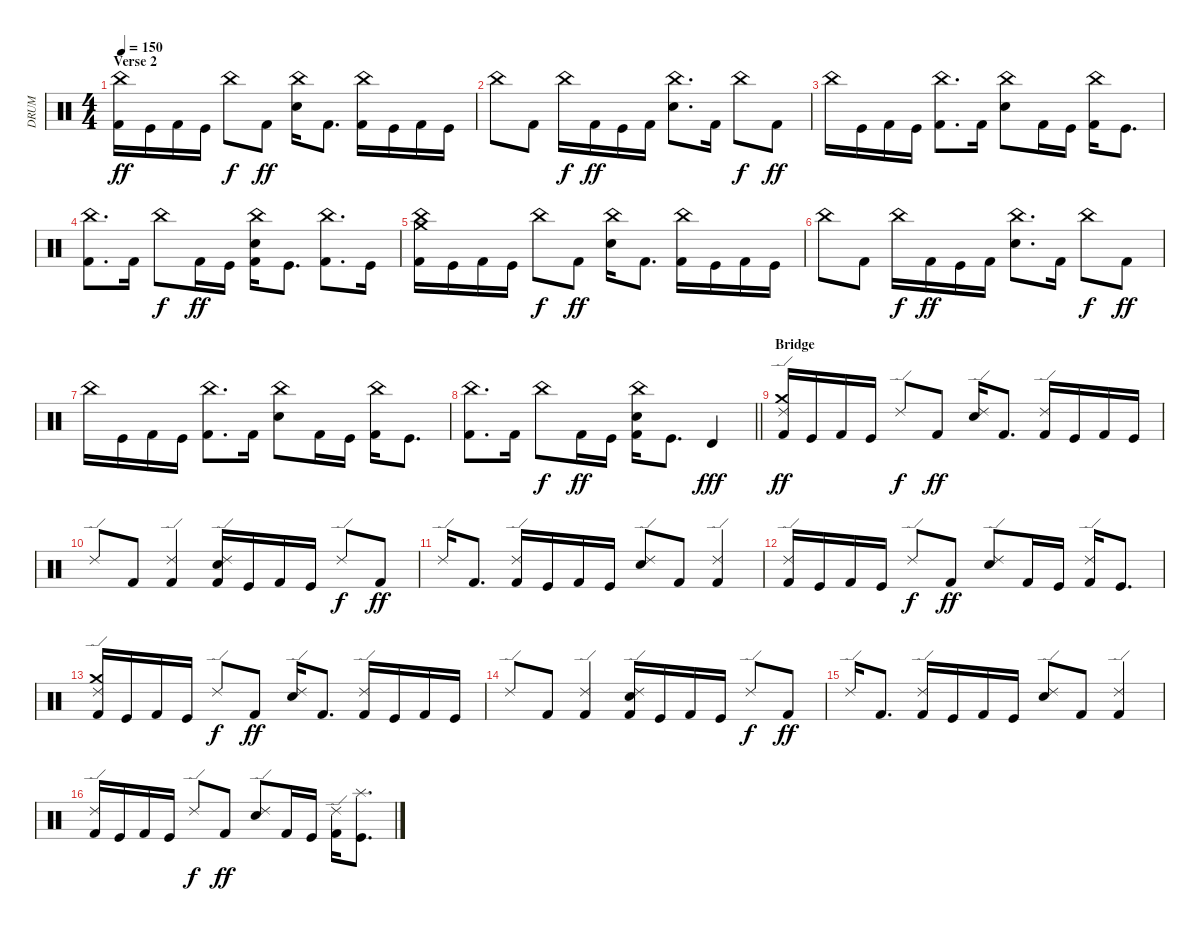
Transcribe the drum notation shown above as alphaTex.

\track ("DRUM" "DRUM") {instrument percussion}
\staff {score}
\articulation defaults
\ts (4 4)
\section ("" "Verse 2")
\tempo 150
\clef neutral
\ks c
("China (hit)" "Kick (hit) 2").16{dy ff} "Kick (hit)".16 "Kick (hit) 2".16 "Kick (hit)".16 "China (hit)".8{dy f} "Kick (hit) 2".8{dy ff} ("China (hit)" "Snare (hit) 2").16 "Kick (hit) 2".8{d} ("China (hit)" "Kick (hit) 2").16 "Kick (hit)".16 "Kick (hit) 2".16 "Kick (hit)".16 |
"China (hit)".8 "Kick (hit) 2".8 "China (hit)".16{dy f} "Kick (hit) 2".16{dy ff} "Kick (hit)".16 "Kick (hit) 2".16 ("China (hit)" "Snare (hit) 2").8{d} "Kick (hit) 2".16 "China (hit)".8{dy f} "Kick (hit) 2".8{dy ff} |
"China (hit)".16 "Kick (hit)".16 "Kick (hit) 2".16 "Kick (hit)".16 ("China (hit)" "Kick (hit) 2").8{d} "Kick (hit) 2".16 ("China (hit)" "Snare (hit) 2").8 "Kick (hit) 2".16 "Kick (hit)".16 ("China (hit)" "Kick (hit) 2").16 "Kick (hit)".8{d} |
("China (hit)" "Kick (hit) 2").8{d} "Kick (hit) 2".16 "China (hit)".8{dy f} "Kick (hit) 2".16{dy ff} "Kick (hit)".16 ("China (hit)" "Snare (hit) 2" "Kick (hit) 2").16 "Kick (hit)".8{d} ("China (hit)" "Kick (hit) 2").8{d} "Kick (hit)".16 |
("China (hit)" "Crash medium (hit)" "Kick (hit) 2").16 "Kick (hit)".16 "Kick (hit) 2".16 "Kick (hit)".16 "China (hit)".8{dy f} "Kick (hit) 2".8{dy ff} ("China (hit)" "Snare (hit) 2").16 "Kick (hit) 2".8{d} ("China (hit)" "Kick (hit) 2").16 "Kick (hit)".16 "Kick (hit) 2".16 "Kick (hit)".16 |
"China (hit)".8 "Kick (hit) 2".8 "China (hit)".16{dy f} "Kick (hit) 2".16{dy ff} "Kick (hit)".16 "Kick (hit) 2".16 ("China (hit)" "Snare (hit) 2").8{d} "Kick (hit) 2".16 "China (hit)".8{dy f} "Kick (hit) 2".8{dy ff} |
"China (hit)".16 "Kick (hit)".16 "Kick (hit) 2".16 "Kick (hit)".16 ("China (hit)" "Kick (hit) 2").8{d} "Kick (hit) 2".16 ("China (hit)" "Snare (hit) 2").8 "Kick (hit) 2".16 "Kick (hit)".16 ("China (hit)" "Kick (hit) 2").16 "Kick (hit)".8{d} |
\barLineRight lightlight
("China (hit)" "Kick (hit) 2").8{d} "Kick (hit) 2".16 "China (hit)".8{dy f} "Kick (hit) 2".16{dy ff} "Kick (hit)".16 ("China (hit)" "Snare (hit) 2" "Kick (hit) 2").16 "Kick (hit)".8{d} "Timbale high (hit)".4{dy fff} |
\section ("" "Bridge")
("Ride (edge) 2" "Crash medium (hit)" "Kick (hit) 2").16{dy ff} "Kick (hit)".16 "Kick (hit) 2".16 "Kick (hit)".16 "Ride (edge) 2".8{dy f} "Kick (hit) 2".8{dy ff} ("Ride (edge) 2" "Snare (hit) 2").16 "Kick (hit) 2".8{d} ("Ride (edge) 2" "Kick (hit) 2").16 "Kick (hit)".16 "Kick (hit) 2".16 "Kick (hit)".16 |
"Ride (edge) 2".8 "Kick (hit) 2".8 ("Ride (edge) 2" "Kick (hit) 2").4 ("Ride (edge) 2" "Snare (hit) 2" "Kick (hit) 2").16 "Kick (hit)".16 "Kick (hit) 2".16 "Kick (hit)".16 "Ride (edge) 2".8{dy f} "Kick (hit) 2".8{dy ff} |
"Ride (edge) 2".16 "Kick (hit) 2".8{d} ("Ride (edge) 2" "Kick (hit) 2").16 "Kick (hit)".16 "Kick (hit) 2".16 "Kick (hit)".16 ("Ride (edge) 2" "Snare (hit) 2").8 "Kick (hit) 2".8 ("Ride (edge) 2" "Kick (hit) 2").4 |
("Ride (edge) 2" "Kick (hit) 2").16 "Kick (hit)".16 "Kick (hit) 2".16 "Kick (hit)".16 "Ride (edge) 2".8{dy f} "Kick (hit) 2".8{dy ff} ("Ride (edge) 2" "Snare (hit) 2").8 "Kick (hit) 2".16 "Kick (hit)".16 ("Ride (edge) 2" "Kick (hit) 2").16 "Kick (hit)".8{d} |
("Ride (edge) 2" "Crash medium (hit)" "Kick (hit) 2").16 "Kick (hit)".16 "Kick (hit) 2".16 "Kick (hit)".16 "Ride (edge) 2".8{dy f} "Kick (hit) 2".8{dy ff} ("Ride (edge) 2" "Snare (hit) 2").16 "Kick (hit) 2".8{d} ("Ride (edge) 2" "Kick (hit) 2").16 "Kick (hit)".16 "Kick (hit) 2".16 "Kick (hit)".16 |
"Ride (edge) 2".8 "Kick (hit) 2".8 ("Ride (edge) 2" "Kick (hit) 2").4 ("Ride (edge) 2" "Snare (hit) 2" "Kick (hit) 2").16 "Kick (hit)".16 "Kick (hit) 2".16 "Kick (hit)".16 "Ride (edge) 2".8{dy f} "Kick (hit) 2".8{dy ff} |
"Ride (edge) 2".16 "Kick (hit) 2".8{d} ("Ride (edge) 2" "Kick (hit) 2").16 "Kick (hit)".16 "Kick (hit) 2".16 "Kick (hit)".16 ("Ride (edge) 2" "Snare (hit) 2").8 "Kick (hit) 2".8 ("Ride (edge) 2" "Kick (hit) 2").4 |
("Ride (edge) 2" "Kick (hit) 2").16 "Kick (hit)".16 "Kick (hit) 2".16 "Kick (hit)".16 "Ride (edge) 2".8{dy f} "Kick (hit) 2".8{dy ff} ("Ride (edge) 2" "Snare (hit) 2").8 "Kick (hit) 2".16 "Kick (hit)".16 ("Ride (edge) 2" "Kick (hit) 2").16 ("Splash (hit)" "Kick (hit)").8{d}
